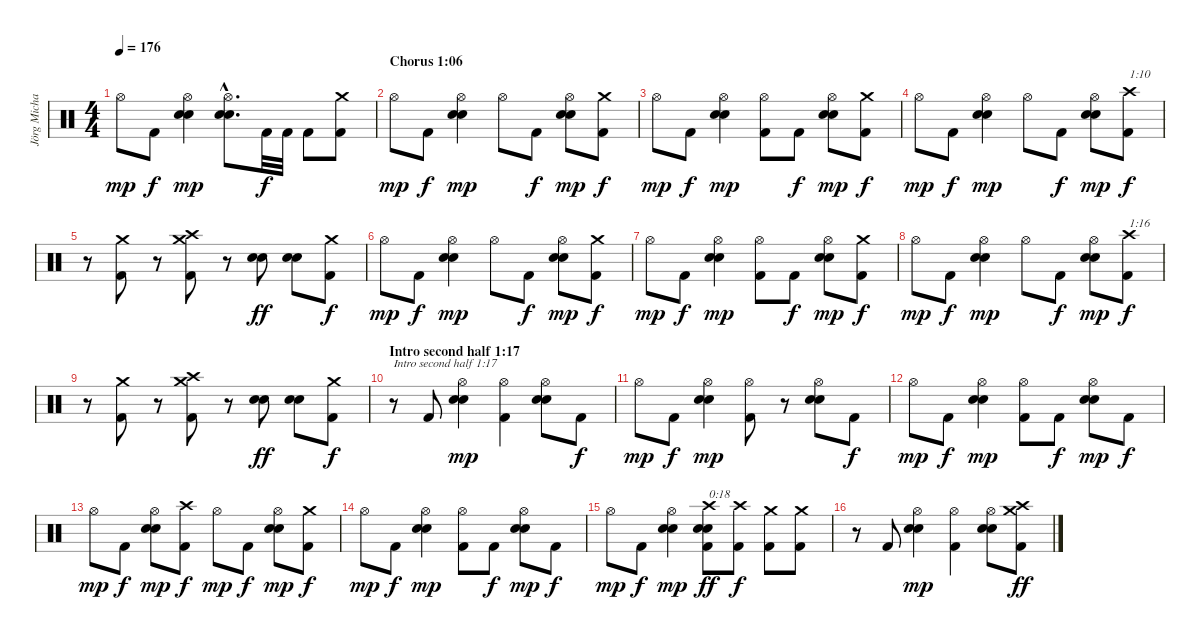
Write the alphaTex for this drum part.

\track ("Jörg Michael" "Jörg Micha") {instrument percussion}
\staff {score}
\articulation defaults
\ts (4 4)
\tempo 176
\clef neutral
\ks c "Hi-Hat (open)".8{dy mp} "Kick (hit) 2".8{dy f}
("Snare (hit) 2" "Electric Snare (hit)" "Hi-Hat (open)").4{dy mp} ("Snare (hit) 2"{hac} "Electric Snare (hit)"{hac} "Hi-Hat (open)"{hac}).8{d} "Kick (hit) 2".32{dy f} "Kick (hit) 2".32 "Kick (hit) 2".8 ("Kick (hit) 2" "Crash medium (hit)").8 |
\section ("" "Chorus 1:06")
"Hi-Hat (open)".8{dy mp} "Kick (hit) 2".8{dy f} ("Snare (hit) 2" "Electric Snare (hit)" "Hi-Hat (open)").4{dy mp} "Hi-Hat (open)".8 "Kick (hit) 2".8{dy f} ("Snare (hit) 2" "Electric Snare (hit)" "Hi-Hat (open)").8{dy mp} ("Kick (hit) 2" "Crash medium (hit)").8{dy f} |
"Hi-Hat (open)".8{dy mp} "Kick (hit) 2".8{dy f} ("Snare (hit) 2" "Electric Snare (hit)" "Hi-Hat (open)").4{dy mp} ("Kick (hit) 2" "Hi-Hat (open)").8 "Kick (hit) 2".8{dy f} ("Snare (hit) 2" "Electric Snare (hit)" "Hi-Hat (open)").8{dy mp} ("Kick (hit) 2" "Crash medium (hit)").8{dy f} |
"Hi-Hat (open)".8{dy mp} "Kick (hit) 2".8{dy f} ("Snare (hit) 2" "Electric Snare (hit)" "Hi-Hat (open)").4{dy mp} "Hi-Hat (open)".8 "Kick (hit) 2".8{dy f} ("Snare (hit) 2" "Electric Snare (hit)" "Hi-Hat (open)").8{dy mp} ("Kick (hit) 2" "Crash high (hit)").8{txt "1:10" dy f} |
r.8 ("Kick (hit) 2" "Crash medium (hit)").8 r.8 ("Kick (hit) 2" "Crash high (hit)" "Crash medium (hit)").8 r.8 ("Snare (hit) 2" "Electric Snare (hit)").8{dy ff} ("Snare (hit) 2" "Electric Snare (hit)").8 ("Kick (hit) 2" "Crash medium (hit)").8{dy f} |
"Hi-Hat (open)".8{dy mp} "Kick (hit) 2".8{dy f} ("Snare (hit) 2" "Electric Snare (hit)" "Hi-Hat (open)").4{dy mp} "Hi-Hat (open)".8 "Kick (hit) 2".8{dy f} ("Snare (hit) 2" "Electric Snare (hit)" "Hi-Hat (open)").8{dy mp} ("Kick (hit) 2" "Crash medium (hit)").8{dy f} |
"Hi-Hat (open)".8{dy mp} "Kick (hit) 2".8{dy f} ("Snare (hit) 2" "Electric Snare (hit)" "Hi-Hat (open)").4{dy mp} ("Kick (hit) 2" "Hi-Hat (open)").8 "Kick (hit) 2".8{dy f} ("Snare (hit) 2" "Electric Snare (hit)" "Hi-Hat (open)").8{dy mp} ("Kick (hit) 2" "Crash medium (hit)").8{dy f} |
"Hi-Hat (open)".8{dy mp} "Kick (hit) 2".8{dy f} ("Snare (hit) 2" "Electric Snare (hit)" "Hi-Hat (open)").4{dy mp} "Hi-Hat (open)".8 "Kick (hit) 2".8{dy f} ("Snare (hit) 2" "Electric Snare (hit)" "Hi-Hat (open)").8{dy mp} ("Kick (hit) 2" "Crash high (hit)").8{txt "1:16" dy f} |
r.8 ("Kick (hit) 2" "Crash medium (hit)").8 r.8 ("Kick (hit) 2" "Crash high (hit)" "Crash medium (hit)").8 r.8 ("Snare (hit) 2" "Electric Snare (hit)").8{dy ff} ("Snare (hit) 2" "Electric Snare (hit)").8 ("Kick (hit) 2" "Crash medium (hit)").8{dy f} |
\section ("" "Intro second half 1:17")
r.8{txt "Intro second half 1:17"} "Kick (hit) 2".8 ("Snare (hit) 2" "Electric Snare (hit)" "Hi-Hat (open)").4{dy mp} ("Kick (hit) 2" "Hi-Hat (open)").4 ("Snare (hit) 2" "Electric Snare (hit)" "Hi-Hat (open)").8 "Kick (hit) 2".8{dy f} |
"Hi-Hat (open)".8{dy mp} "Kick (hit) 2".8{dy f} ("Snare (hit) 2" "Electric Snare (hit)" "Hi-Hat (open)").4{dy mp} ("Kick (hit) 2" "Hi-Hat (open)").8 r.8 ("Snare (hit) 2" "Electric Snare (hit)" "Hi-Hat (open)").8 "Kick (hit) 2".8{dy f} |
"Hi-Hat (open)".8{dy mp} "Kick (hit) 2".8{dy f} ("Snare (hit) 2" "Electric Snare (hit)" "Hi-Hat (open)").4{dy mp} ("Kick (hit) 2" "Hi-Hat (open)").8 "Kick (hit) 2".8{dy f} ("Snare (hit) 2" "Electric Snare (hit)" "Hi-Hat (open)").8{dy mp} "Kick (hit) 2".8{dy f} |
"Hi-Hat (open)".8{dy mp} "Kick (hit) 2".8{dy f} ("Snare (hit) 2" "Electric Snare (hit)" "Hi-Hat (open)").8{dy mp} ("Kick (hit) 2" "Crash high (hit)").8{dy f} "Hi-Hat (open)".8{dy mp} "Kick (hit) 2".8{dy f} ("Snare (hit) 2" "Electric Snare (hit)" "Hi-Hat (open)").8{dy mp} ("Kick (hit) 2" "Crash medium (hit)").8{dy f} |
"Hi-Hat (open)".8{dy mp} "Kick (hit) 2".8{dy f} ("Snare (hit) 2" "Electric Snare (hit)" "Hi-Hat (open)").4{dy mp} ("Kick (hit) 2" "Hi-Hat (open)").8 "Kick (hit) 2".8{dy f} ("Snare (hit) 2" "Electric Snare (hit)" "Hi-Hat (open)").8{dy mp} "Kick (hit) 2".8{dy f} |
"Hi-Hat (open)".8{dy mp} "Kick (hit) 2".8{dy f} ("Snare (hit) 2" "Electric Snare (hit)" "Hi-Hat (open)").4{dy mp} ("Kick (hit) 2" "Snare (hit) 2" "Electric Snare (hit)" "Crash high (hit)").8{txt "0:18" dy ff} ("Kick (hit) 2" "Crash high (hit)").8{dy f} ("Kick (hit) 2" "Crash medium (hit)").8 ("Kick (hit) 2" "Crash medium (hit)").8 |
r.8 "Kick (hit) 2".8 ("Snare (hit) 2" "Electric Snare (hit)" "Hi-Hat (open)").4{dy mp} ("Kick (hit) 2" "Hi-Hat (open)").4 ("Snare (hit) 2" "Electric Snare (hit)" "Hi-Hat (open)").8 ("Kick (hit) 2" "Crash high (hit)" "Crash medium (hit)").8{dy ff}
